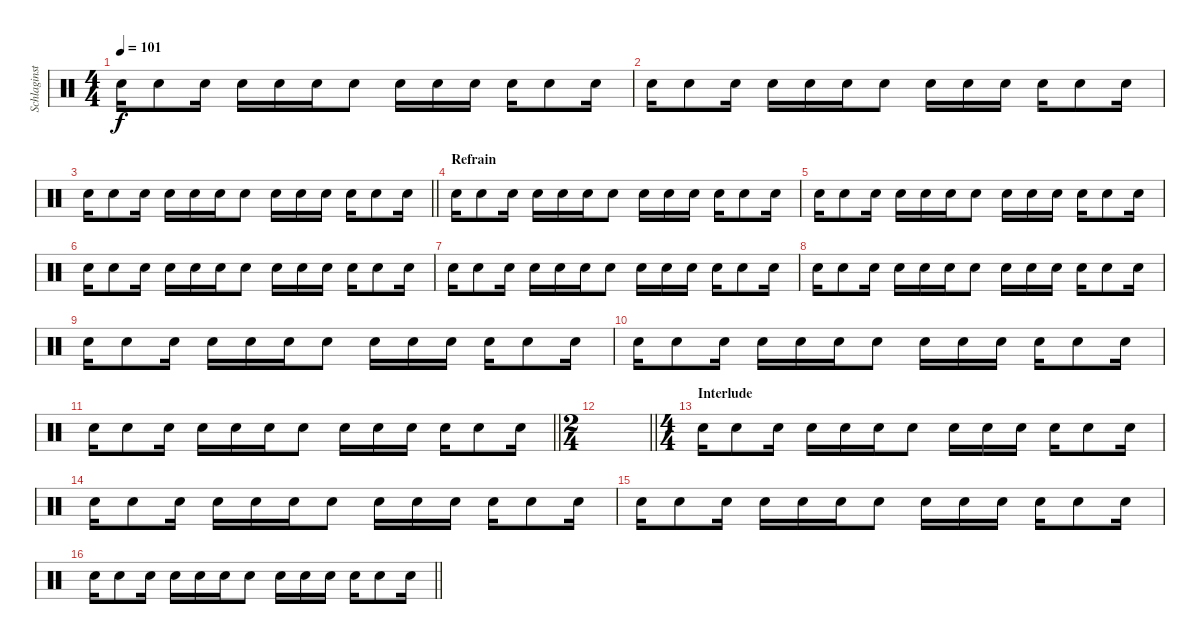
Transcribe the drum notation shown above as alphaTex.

\track ("Schlaginstrumente - Auswahl" "Schlaginst") {instrument percussion}
\staff {score}
\articulation defaults
\ts (4 4)
\tempo 101
\clef neutral
\ks c "Electric Snare (hit)".16{dy f} "Electric Snare (hit)".8 "Electric Snare (hit)".16 "Electric Snare (hit)".16 "Electric Snare (hit)".16 "Electric Snare (hit)".16 "Electric Snare (hit)".8 "Electric Snare (hit)".16 "Electric Snare (hit)".16 "Electric Snare (hit)".16 "Electric Snare (hit)".16 "Electric Snare (hit)".8 "Electric Snare (hit)".16
|
"Electric Snare (hit)".16 "Electric Snare (hit)".8 "Electric Snare (hit)".16 "Electric Snare (hit)".16 "Electric Snare (hit)".16 "Electric Snare (hit)".16 "Electric Snare (hit)".8 "Electric Snare (hit)".16 "Electric Snare (hit)".16 "Electric Snare (hit)".16 "Electric Snare (hit)".16 "Electric Snare (hit)".8 "Electric Snare (hit)".16 |
\barLineRight lightlight "Electric Snare (hit)".16 "Electric Snare (hit)".8 "Electric Snare (hit)".16 "Electric Snare (hit)".16 "Electric Snare (hit)".16 "Electric Snare (hit)".16 "Electric Snare (hit)".8 "Electric Snare (hit)".16 "Electric Snare (hit)".16 "Electric Snare (hit)".16 "Electric Snare (hit)".16 "Electric Snare (hit)".8 "Electric Snare (hit)".16
|
\section ("" "Refrain")
"Electric Snare (hit)".16{volume 4} "Electric Snare (hit)".8 "Electric Snare (hit)".16 "Electric Snare (hit)".16 "Electric Snare (hit)".16 "Electric Snare (hit)".16 "Electric Snare (hit)".8 "Electric Snare (hit)".16 "Electric Snare (hit)".16 "Electric Snare (hit)".16 "Electric Snare (hit)".16 "Electric Snare (hit)".8 "Electric Snare (hit)".16 |
"Electric Snare (hit)".16 "Electric Snare (hit)".8 "Electric Snare (hit)".16 "Electric Snare (hit)".16 "Electric Snare (hit)".16 "Electric Snare (hit)".16 "Electric Snare (hit)".8 "Electric Snare (hit)".16 "Electric Snare (hit)".16 "Electric Snare (hit)".16 "Electric Snare (hit)".16 "Electric Snare (hit)".8 "Electric Snare (hit)".16 |
"Electric Snare (hit)".16 "Electric Snare (hit)".8 "Electric Snare (hit)".16 "Electric Snare (hit)".16 "Electric Snare (hit)".16 "Electric Snare (hit)".16 "Electric Snare (hit)".8 "Electric Snare (hit)".16 "Electric Snare (hit)".16 "Electric Snare (hit)".16 "Electric Snare (hit)".16 "Electric Snare (hit)".8 "Electric Snare (hit)".16 |
"Electric Snare (hit)".16 "Electric Snare (hit)".8 "Electric Snare (hit)".16 "Electric Snare (hit)".16 "Electric Snare (hit)".16 "Electric Snare (hit)".16 "Electric Snare (hit)".8 "Electric Snare (hit)".16 "Electric Snare (hit)".16 "Electric Snare (hit)".16 "Electric Snare (hit)".16 "Electric Snare (hit)".8 "Electric Snare (hit)".16 |
"Electric Snare (hit)".16{volume 4} "Electric Snare (hit)".8 "Electric Snare (hit)".16 "Electric Snare (hit)".16 "Electric Snare (hit)".16 "Electric Snare (hit)".16 "Electric Snare (hit)".8 "Electric Snare (hit)".16 "Electric Snare (hit)".16 "Electric Snare (hit)".16 "Electric Snare (hit)".16 "Electric Snare (hit)".8 "Electric Snare (hit)".16 |
"Electric Snare (hit)".16 "Electric Snare (hit)".8 "Electric Snare (hit)".16 "Electric Snare (hit)".16 "Electric Snare (hit)".16 "Electric Snare (hit)".16 "Electric Snare (hit)".8 "Electric Snare (hit)".16 "Electric Snare (hit)".16 "Electric Snare (hit)".16 "Electric Snare (hit)".16 "Electric Snare (hit)".8 "Electric Snare (hit)".16 |
"Electric Snare (hit)".16 "Electric Snare (hit)".8 "Electric Snare (hit)".16 "Electric Snare (hit)".16 "Electric Snare (hit)".16 "Electric Snare (hit)".16 "Electric Snare (hit)".8 "Electric Snare (hit)".16 "Electric Snare (hit)".16 "Electric Snare (hit)".16 "Electric Snare (hit)".16 "Electric Snare (hit)".8 "Electric Snare (hit)".16 |
\barLineRight lightlight "Electric Snare (hit)".16 "Electric Snare (hit)".8 "Electric Snare (hit)".16 "Electric Snare (hit)".16 "Electric Snare (hit)".16 "Electric Snare (hit)".16 "Electric Snare (hit)".8 "Electric Snare (hit)".16 "Electric Snare (hit)".16 "Electric Snare (hit)".16 "Electric Snare (hit)".16 "Electric Snare (hit)".8 "Electric Snare (hit)".16
|
\ts (2 4)
\barLineRight lightlight
|
\ts (4 4)
\section ("" "Interlude")
"Electric Snare (hit)".16{volume 4} "Electric Snare (hit)".8 "Electric Snare (hit)".16 "Electric Snare (hit)".16 "Electric Snare (hit)".16 "Electric Snare (hit)".16 "Electric Snare (hit)".8 "Electric Snare (hit)".16 "Electric Snare (hit)".16 "Electric Snare (hit)".16 "Electric Snare (hit)".16 "Electric Snare (hit)".8 "Electric Snare (hit)".16 |
"Electric Snare (hit)".16 "Electric Snare (hit)".8 "Electric Snare (hit)".16 "Electric Snare (hit)".16 "Electric Snare (hit)".16 "Electric Snare (hit)".16 "Electric Snare (hit)".8 "Electric Snare (hit)".16 "Electric Snare (hit)".16 "Electric Snare (hit)".16 "Electric Snare (hit)".16 "Electric Snare (hit)".8 "Electric Snare (hit)".16 |
"Electric Snare (hit)".16 "Electric Snare (hit)".8 "Electric Snare (hit)".16 "Electric Snare (hit)".16 "Electric Snare (hit)".16 "Electric Snare (hit)".16 "Electric Snare (hit)".8 "Electric Snare (hit)".16 "Electric Snare (hit)".16 "Electric Snare (hit)".16 "Electric Snare (hit)".16 "Electric Snare (hit)".8 "Electric Snare (hit)".16 |
\barLineRight lightlight "Electric Snare (hit)".16 "Electric Snare (hit)".8 "Electric Snare (hit)".16 "Electric Snare (hit)".16 "Electric Snare (hit)".16 "Electric Snare (hit)".16 "Electric Snare (hit)".8 "Electric Snare (hit)".16 "Electric Snare (hit)".16 "Electric Snare (hit)".16 "Electric Snare (hit)".16 "Electric Snare (hit)".8 "Electric Snare (hit)".16
